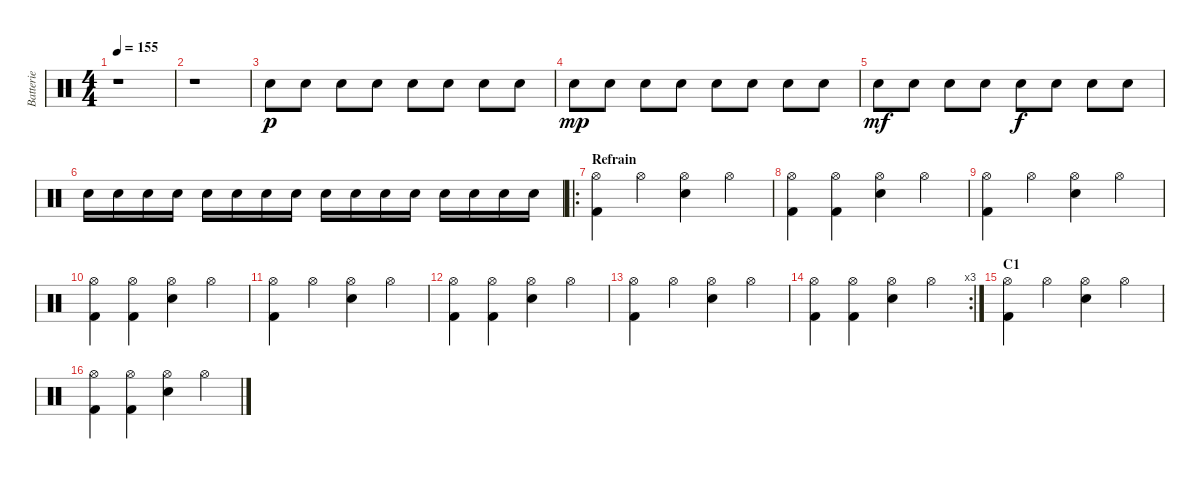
\track ("Batterie" "Batterie") {instrument percussion}
\staff {score}
\articulation defaults
\ts (4 4)
\tempo 155
\clef neutral
\ks c
r.1{dy p} |
r.1 |
"Snare (hit) 2".8 "Snare (hit) 2".8 "Snare (hit) 2".8 "Snare (hit) 2".8 "Snare (hit) 2".8 "Snare (hit) 2".8 "Snare (hit) 2".8 "Snare (hit) 2".8 |
"Snare (hit) 2".8{dy mp} "Snare (hit) 2".8 "Snare (hit) 2".8 "Snare (hit) 2".8 "Snare (hit) 2".8 "Snare (hit) 2".8 "Snare (hit) 2".8 "Snare (hit) 2".8 |
"Snare (hit) 2".8{dy mf} "Snare (hit) 2".8 "Snare (hit) 2".8 "Snare (hit) 2".8 "Snare (hit) 2".8{dy f} "Snare (hit) 2".8 "Snare (hit) 2".8 "Snare (hit) 2".8 |
"Snare (hit) 2".16 "Snare (hit) 2".16 "Snare (hit) 2".16 "Snare (hit) 2".16 "Snare (hit) 2".16 "Snare (hit) 2".16 "Snare (hit) 2".16 "Snare (hit) 2".16 "Snare (hit) 2".16 "Snare (hit) 2".16 "Snare (hit) 2".16 "Snare (hit) 2".16 "Snare (hit) 2".16 "Snare (hit) 2".16 "Snare (hit) 2".16 "Snare (hit) 2".16 |
\ro
\section ("" "Refrain")
("Hi-Hat (open)" "Kick (hit) 2").4 "Hi-Hat (open)".4 ("Hi-Hat (open)" "Snare (hit) 2").4 "Hi-Hat (open)".4 |
("Hi-Hat (open)" "Kick (hit) 2").4 ("Hi-Hat (open)" "Kick (hit) 2").4 ("Hi-Hat (open)" "Snare (hit) 2").4 "Hi-Hat (open)".4 |
("Hi-Hat (open)" "Kick (hit) 2").4 "Hi-Hat (open)".4 ("Hi-Hat (open)" "Snare (hit) 2").4 "Hi-Hat (open)".4 |
("Hi-Hat (open)" "Kick (hit) 2").4 ("Hi-Hat (open)" "Kick (hit) 2").4 ("Hi-Hat (open)" "Snare (hit) 2").4 "Hi-Hat (open)".4 |
("Hi-Hat (open)" "Kick (hit) 2").4 "Hi-Hat (open)".4 ("Hi-Hat (open)" "Snare (hit) 2").4 "Hi-Hat (open)".4 |
("Hi-Hat (open)" "Kick (hit) 2").4 ("Hi-Hat (open)" "Kick (hit) 2").4 ("Hi-Hat (open)" "Snare (hit) 2").4 "Hi-Hat (open)".4 |
("Hi-Hat (open)" "Kick (hit) 2").4 "Hi-Hat (open)".4 ("Hi-Hat (open)" "Snare (hit) 2").4 "Hi-Hat (open)".4 |
\rc 3
("Hi-Hat (open)" "Kick (hit) 2").4 ("Hi-Hat (open)" "Kick (hit) 2").4 ("Hi-Hat (open)" "Snare (hit) 2").4 "Hi-Hat (open)".4 |
\section ("" "C1")
("Hi-Hat (open)" "Kick (hit) 2").4 "Hi-Hat (open)".4 ("Hi-Hat (open)" "Snare (hit) 2").4 "Hi-Hat (open)".4 |
("Hi-Hat (open)" "Kick (hit) 2").4 ("Hi-Hat (open)" "Kick (hit) 2").4 ("Hi-Hat (open)" "Snare (hit) 2").4 "Hi-Hat (open)".4
